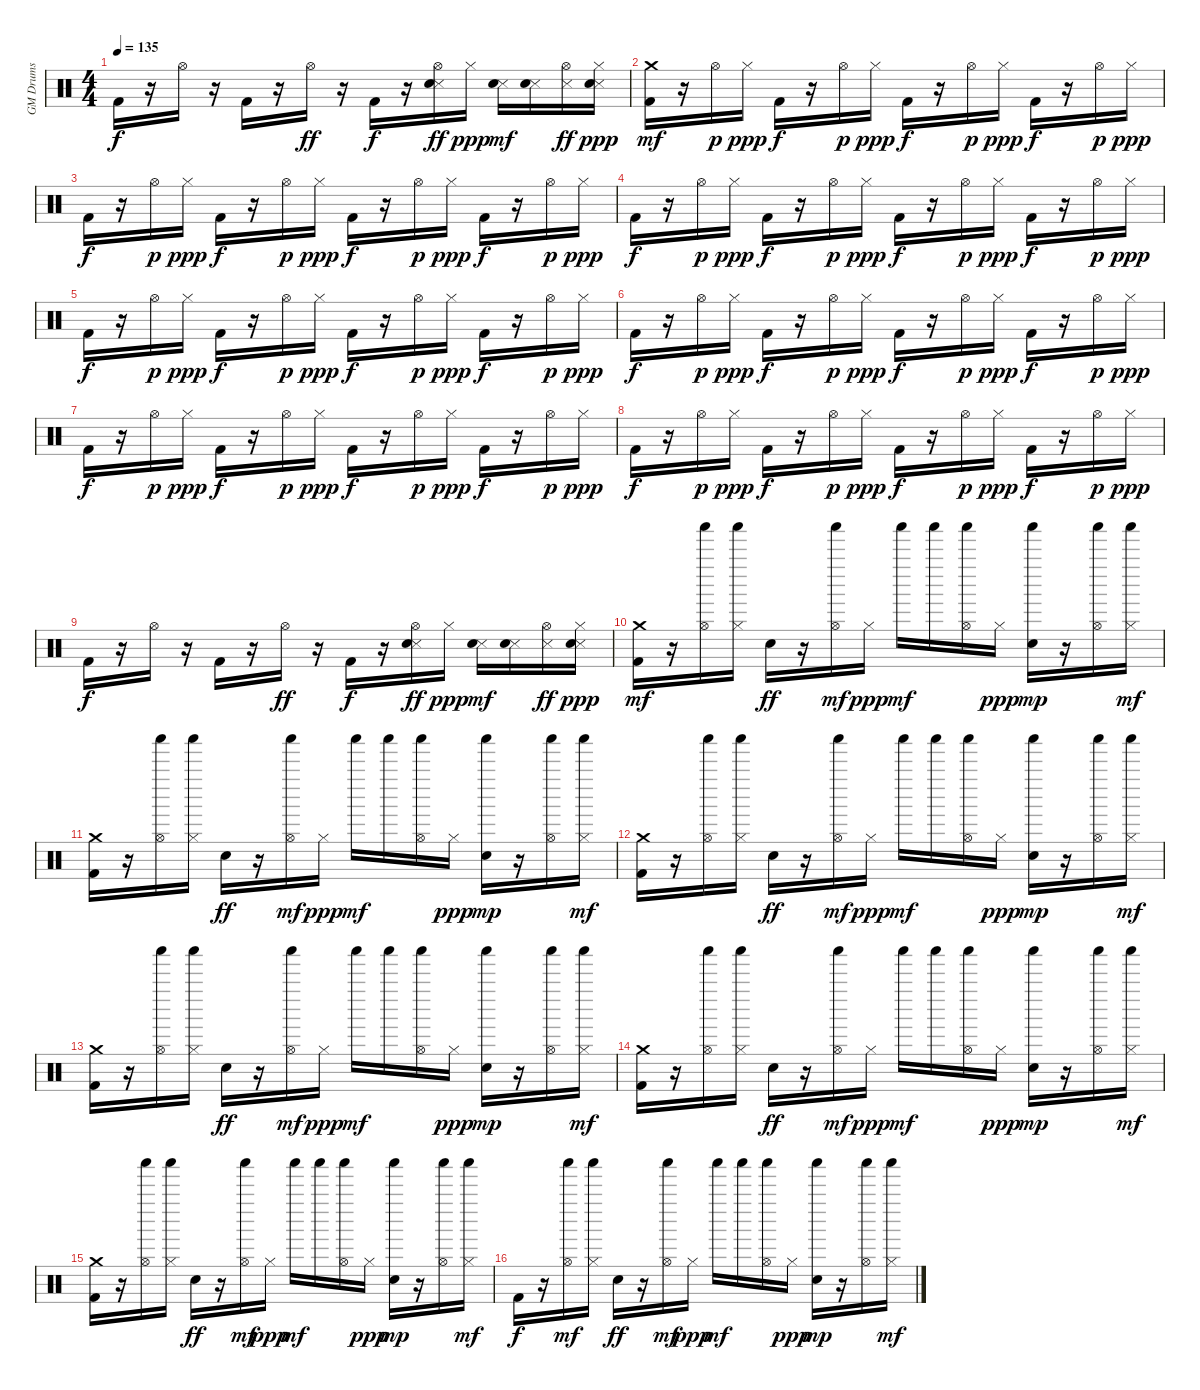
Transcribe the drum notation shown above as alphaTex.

\track ("GM Drums" "GM Drums") {instrument percussion}
\staff {score}
\articulation defaults
\ts (4 4)
\tempo 135
\clef neutral
\ks c "Kick (hit) 2".16{dy f}
r.16 "Hi-Hat (open)".16 r.16 "Kick (hit) 2".16 r.16 "Hi-Hat (open)".16{dy ff} r.16 "Kick (hit) 2".16{dy f} r.16 ("Metronome (hit)" "Electric Snare (hit)" "Hi-Hat (open)").16{dy ff} "Hi-Hat (closed)".16{dy ppp} ("Metronome (hit)" "Electric Snare (hit)").16{dy mf} ("Metronome (hit)" "Electric Snare (hit)").16 ("Metronome (hit)" "Hi-Hat (open)").16{dy ff} ("Metronome (hit)" "Electric Snare (hit)" "Hi-Hat (closed)").16{dy ppp} |
("Kick (hit) 2" "Crash medium (hit)").16{dy mf} r.16 "Hi-Hat (open)".16{dy p} "Hi-Hat (closed)".16{dy ppp} "Kick (hit) 2".16{dy f} r.16 "Hi-Hat (open)".16{dy p} "Hi-Hat (closed)".16{dy ppp} "Kick (hit) 2".16{dy f} r.16 "Hi-Hat (open)".16{dy p} "Hi-Hat (closed)".16{dy ppp} "Kick (hit) 2".16{dy f} r.16 "Hi-Hat (open)".16{dy p} "Hi-Hat (closed)".16{dy ppp} |
"Kick (hit) 2".16{dy f} r.16 "Hi-Hat (open)".16{dy p} "Hi-Hat (closed)".16{dy ppp} "Kick (hit) 2".16{dy f} r.16 "Hi-Hat (open)".16{dy p} "Hi-Hat (closed)".16{dy ppp} "Kick (hit) 2".16{dy f} r.16 "Hi-Hat (open)".16{dy p} "Hi-Hat (closed)".16{dy ppp} "Kick (hit) 2".16{dy f} r.16 "Hi-Hat (open)".16{dy p} "Hi-Hat (closed)".16{dy ppp} |
"Kick (hit) 2".16{dy f} r.16 "Hi-Hat (open)".16{dy p} "Hi-Hat (closed)".16{dy ppp} "Kick (hit) 2".16{dy f} r.16 "Hi-Hat (open)".16{dy p} "Hi-Hat (closed)".16{dy ppp} "Kick (hit) 2".16{dy f} r.16 "Hi-Hat (open)".16{dy p} "Hi-Hat (closed)".16{dy ppp} "Kick (hit) 2".16{dy f} r.16 "Hi-Hat (open)".16{dy p} "Hi-Hat (closed)".16{dy ppp} |
"Kick (hit) 2".16{dy f} r.16 "Hi-Hat (open)".16{dy p} "Hi-Hat (closed)".16{dy ppp} "Kick (hit) 2".16{dy f} r.16 "Hi-Hat (open)".16{dy p} "Hi-Hat (closed)".16{dy ppp} "Kick (hit) 2".16{dy f} r.16 "Hi-Hat (open)".16{dy p} "Hi-Hat (closed)".16{dy ppp} "Kick (hit) 2".16{dy f} r.16 "Hi-Hat (open)".16{dy p} "Hi-Hat (closed)".16{dy ppp} |
"Kick (hit) 2".16{dy f} r.16 "Hi-Hat (open)".16{dy p} "Hi-Hat (closed)".16{dy ppp} "Kick (hit) 2".16{dy f} r.16 "Hi-Hat (open)".16{dy p} "Hi-Hat (closed)".16{dy ppp} "Kick (hit) 2".16{dy f} r.16 "Hi-Hat (open)".16{dy p} "Hi-Hat (closed)".16{dy ppp} "Kick (hit) 2".16{dy f} r.16 "Hi-Hat (open)".16{dy p} "Hi-Hat (closed)".16{dy ppp} |
"Kick (hit) 2".16{dy f} r.16 "Hi-Hat (open)".16{dy p} "Hi-Hat (closed)".16{dy ppp} "Kick (hit) 2".16{dy f} r.16 "Hi-Hat (open)".16{dy p} "Hi-Hat (closed)".16{dy ppp} "Kick (hit) 2".16{dy f} r.16 "Hi-Hat (open)".16{dy p} "Hi-Hat (closed)".16{dy ppp} "Kick (hit) 2".16{dy f} r.16 "Hi-Hat (open)".16{dy p} "Hi-Hat (closed)".16{dy ppp} |
"Kick (hit) 2".16{dy f} r.16 "Hi-Hat (open)".16{dy p} "Hi-Hat (closed)".16{dy ppp} "Kick (hit) 2".16{dy f} r.16 "Hi-Hat (open)".16{dy p} "Hi-Hat (closed)".16{dy ppp} "Kick (hit) 2".16{dy f} r.16 "Hi-Hat (open)".16{dy p} "Hi-Hat (closed)".16{dy ppp} "Kick (hit) 2".16{dy f} r.16 "Hi-Hat (open)".16{dy p} "Hi-Hat (closed)".16{dy ppp} |
"Kick (hit) 2".16{dy f} r.16 "Hi-Hat (open)".16 r.16 "Kick (hit) 2".16 r.16 "Hi-Hat (open)".16{dy ff} r.16 "Kick (hit) 2".16{dy f} r.16 ("Metronome (hit)" "Electric Snare (hit)" "Hi-Hat (open)").16{dy ff} "Hi-Hat (closed)".16{dy ppp} ("Metronome (hit)" "Electric Snare (hit)").16{dy mf} ("Metronome (hit)" "Electric Snare (hit)").16 ("Metronome (hit)" "Hi-Hat (open)").16{dy ff} ("Metronome (hit)" "Electric Snare (hit)" "Hi-Hat (closed)").16{dy ppp} |
("Kick (hit) 2" "Crash medium (hit)").16{dy mf} r.16 ("Hi-Hat (open)" "Shaker (hit)").16 ("Hi-Hat (closed)" "Shaker (hit)").16 "Snare (hit) 2".16{dy ff} r.16 ("Hi-Hat (open)" "Shaker (hit)").16{dy mf} "Hi-Hat (closed)".16{dy ppp} "Shaker (hit)".16{dy mf} "Shaker (hit)".16 ("Hi-Hat (open)" "Shaker (hit)").16 "Hi-Hat (closed)".16{dy ppp} ("Snare (hit) 2" "Shaker (hit)").16{dy mp} r.16 ("Hi-Hat (open)" "Shaker (hit)").16 ("Hi-Hat (closed)" "Shaker (hit)").16{dy mf} |
("Kick (hit) 2" "Crash medium (hit)").16 r.16 ("Hi-Hat (open)" "Shaker (hit)").16 ("Hi-Hat (closed)" "Shaker (hit)").16 "Snare (hit) 2".16{dy ff} r.16 ("Hi-Hat (open)" "Shaker (hit)").16{dy mf} "Hi-Hat (closed)".16{dy ppp} "Shaker (hit)".16{dy mf} "Shaker (hit)".16 ("Hi-Hat (open)" "Shaker (hit)").16 "Hi-Hat (closed)".16{dy ppp} ("Snare (hit) 2" "Shaker (hit)").16{dy mp} r.16 ("Hi-Hat (open)" "Shaker (hit)").16 ("Hi-Hat (closed)" "Shaker (hit)").16{dy mf} |
("Kick (hit) 2" "Crash medium (hit)").16 r.16 ("Hi-Hat (open)" "Shaker (hit)").16 ("Hi-Hat (closed)" "Shaker (hit)").16 "Snare (hit) 2".16{dy ff} r.16 ("Hi-Hat (open)" "Shaker (hit)").16{dy mf} "Hi-Hat (closed)".16{dy ppp} "Shaker (hit)".16{dy mf} "Shaker (hit)".16 ("Hi-Hat (open)" "Shaker (hit)").16 "Hi-Hat (closed)".16{dy ppp} ("Snare (hit) 2" "Shaker (hit)").16{dy mp} r.16 ("Hi-Hat (open)" "Shaker (hit)").16 ("Hi-Hat (closed)" "Shaker (hit)").16{dy mf} |
("Kick (hit) 2" "Crash medium (hit)").16 r.16 ("Hi-Hat (open)" "Shaker (hit)").16 ("Hi-Hat (closed)" "Shaker (hit)").16 "Snare (hit) 2".16{dy ff} r.16 ("Hi-Hat (open)" "Shaker (hit)").16{dy mf} "Hi-Hat (closed)".16{dy ppp} "Shaker (hit)".16{dy mf} "Shaker (hit)".16 ("Hi-Hat (open)" "Shaker (hit)").16 "Hi-Hat (closed)".16{dy ppp} ("Snare (hit) 2" "Shaker (hit)").16{dy mp} r.16 ("Hi-Hat (open)" "Shaker (hit)").16 ("Hi-Hat (closed)" "Shaker (hit)").16{dy mf} |
("Kick (hit) 2" "Crash medium (hit)").16 r.16 ("Hi-Hat (open)" "Shaker (hit)").16 ("Hi-Hat (closed)" "Shaker (hit)").16 "Snare (hit) 2".16{dy ff} r.16 ("Hi-Hat (open)" "Shaker (hit)").16{dy mf} "Hi-Hat (closed)".16{dy ppp} "Shaker (hit)".16{dy mf} "Shaker (hit)".16 ("Hi-Hat (open)" "Shaker (hit)").16 "Hi-Hat (closed)".16{dy ppp} ("Snare (hit) 2" "Shaker (hit)").16{dy mp} r.16 ("Hi-Hat (open)" "Shaker (hit)").16 ("Hi-Hat (closed)" "Shaker (hit)").16{dy mf} |
("Kick (hit) 2" "Crash medium (hit)").16 r.16 ("Hi-Hat (open)" "Shaker (hit)").16 ("Hi-Hat (closed)" "Shaker (hit)").16 "Snare (hit) 2".16{dy ff} r.16 ("Hi-Hat (open)" "Shaker (hit)").16{dy mf} "Hi-Hat (closed)".16{dy ppp} "Shaker (hit)".16{dy mf} "Shaker (hit)".16 ("Hi-Hat (open)" "Shaker (hit)").16 "Hi-Hat (closed)".16{dy ppp} ("Snare (hit) 2" "Shaker (hit)").16{dy mp} r.16 ("Hi-Hat (open)" "Shaker (hit)").16 ("Hi-Hat (closed)" "Shaker (hit)").16{dy mf} |
"Kick (hit) 2".16{dy f} r.16 ("Hi-Hat (open)" "Shaker (hit)").16{dy mf} ("Hi-Hat (closed)" "Shaker (hit)").16 "Snare (hit) 2".16{dy ff} r.16 ("Hi-Hat (open)" "Shaker (hit)").16{dy mf} "Hi-Hat (closed)".16{dy ppp} "Shaker (hit)".16{dy mf} "Shaker (hit)".16 ("Hi-Hat (open)" "Shaker (hit)").16 "Hi-Hat (closed)".16{dy ppp} ("Snare (hit) 2" "Shaker (hit)").16{dy mp} r.16 ("Hi-Hat (open)" "Shaker (hit)").16 ("Hi-Hat (closed)" "Shaker (hit)").16{dy mf}
